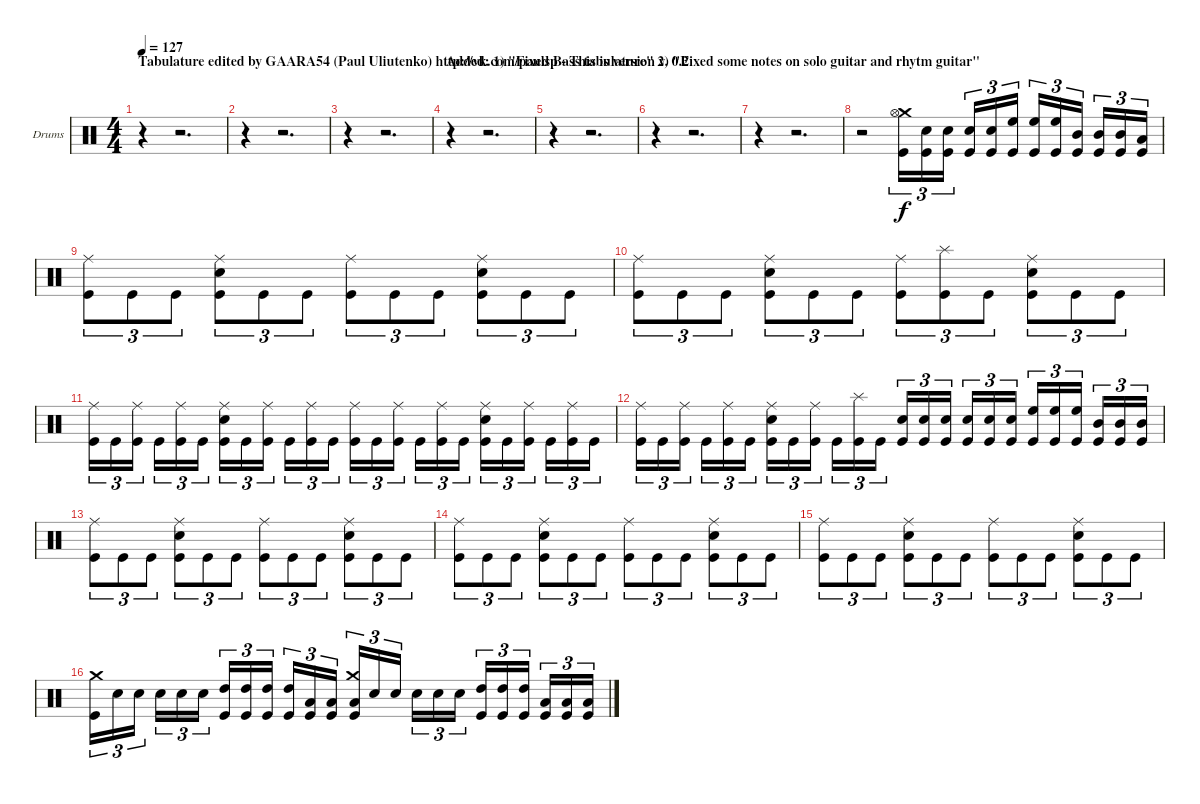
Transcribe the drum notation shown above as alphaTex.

\bracketExtendMode groupsimilarinstruments
\firstSystemTrackNameOrientation horizontal
\otherSystemsTrackNameOrientation horizontal
\track ("Drumkit" "Drums") {instrument percussion}
\staff {score}
\articulation defaults
\ts (4 4)
\section ("" "Tabulature edited by GAARA54 (Paul Uliutenko) http://vk.com/paulsp - This is version v. 0.2")
\tempo 127
\clef neutral
\ks c
r.4{dy f} r.2{d} |
r.4 r.2{d} |
r.4 r.2{d} |
\section ("" "Added: 1) \"Fixed Bass tabulature\" 2) \"Fixed some notes on solo guitar and rhytm guitar\"")
r.4 r.2{d} |
r.4 r.2{d} |
r.4 r.2{d} |
r.4 r.2{d} |
r.2 ("Kick (hit)" "Crash medium (hit)" "Hi-Hat (open)").16{tu (3 2)} ("Kick (hit)" "Snare (hit) 2").16{tu (3 2)} ("Kick (hit)" "Snare (hit) 2").16{tu (3 2)} ("Kick (hit)" "Snare (hit) 2").16{tu (3 2)} ("Kick (hit)" "Snare (hit) 2").16{tu (3 2)} ("Kick (hit)" "High Floor Tom (hit)").16{tu (3 2)} ("Kick (hit)" "High Floor Tom (hit)").16{tu (3 2)} ("Kick (hit)" "High Floor Tom (hit)").16{tu (3 2)} ("Kick (hit)" "Mid Tom (hit)").16{tu (3 2)} ("Kick (hit)" "Mid Tom (hit)").16{tu (3 2)} ("Kick (hit)" "Mid Tom (hit)").16{tu (3 2)} ("Kick (hit)" "Low Tom (hit)").16{tu (3 2)} |
("Ride (middle)" "Kick (hit)").8{tu (3 2)} "Kick (hit)".8{tu (3 2)} "Kick (hit)".8{tu (3 2)} ("Ride (middle)" "Snare (hit) 2" "Kick (hit)").8{tu (3 2)} "Kick (hit)".8{tu (3 2)} "Kick (hit)".8{tu (3 2)} ("Ride (middle)" "Kick (hit)").8{tu (3 2)} "Kick (hit)".8{tu (3 2)} "Kick (hit)".8{tu (3 2)} ("Ride (middle)" "Snare (hit) 2" "Kick (hit)").8{tu (3 2)} "Kick (hit)".8{tu (3 2)} "Kick (hit)".8{tu (3 2)} |
("Ride (middle)" "Kick (hit)").8{tu (3 2)} "Kick (hit)".8{tu (3 2)} "Kick (hit)".8{tu (3 2)} ("Ride (middle)" "Snare (hit) 2" "Kick (hit)").8{tu (3 2)} "Kick (hit)".8{tu (3 2)} "Kick (hit)".8{tu (3 2)} ("Ride (middle)" "Kick (hit)").8{tu (3 2)} ("Splash (hit)" "Kick (hit)").8{tu (3 2)} "Kick (hit)".8{tu (3 2)} ("Ride (middle)" "Snare (hit) 2" "Kick (hit)").8{tu (3 2)} "Kick (hit)".8{tu (3 2)} "Kick (hit)".8{tu (3 2)} |
("Ride (middle)" "Kick (hit)").16{tu (3 2)} "Kick (hit)".16{tu (3 2)} ("Ride (middle)" "Kick (hit)").16{tu (3 2)} "Kick (hit)".16{tu (3 2)} ("Ride (middle)" "Kick (hit)").16{tu (3 2)} "Kick (hit)".16{tu (3 2)} ("Ride (middle)" "Snare (hit) 2" "Kick (hit)").16{tu (3 2)} "Kick (hit)".16{tu (3 2)} ("Ride (middle)" "Kick (hit)").16{tu (3 2)} "Kick (hit)".16{tu (3 2)} ("Ride (middle)" "Kick (hit)").16{tu (3 2)} "Kick (hit)".16{tu (3 2)} ("Ride (middle)" "Kick (hit)").16{tu (3 2)} "Kick (hit)".16{tu (3 2)} ("Ride (middle)" "Kick (hit)").16{tu (3 2)} "Kick (hit)".16{tu (3 2)} ("Ride (middle)" "Kick (hit)").16{tu (3 2)} "Kick (hit)".16{tu (3 2)} ("Ride (middle)" "Snare (hit) 2" "Kick (hit)").16{tu (3 2)} "Kick (hit)".16{tu (3 2)} ("Ride (middle)" "Kick (hit)").16{tu (3 2)} "Kick (hit)".16{tu (3 2)} ("Ride (middle)" "Kick (hit)").16{tu (3 2)} "Kick (hit)".16{tu (3 2)} |
("Ride (middle)" "Kick (hit)").16{tu (3 2)} "Kick (hit)".16{tu (3 2)} ("Ride (middle)" "Kick (hit)").16{tu (3 2)} "Kick (hit)".16{tu (3 2)} ("Ride (middle)" "Kick (hit)").16{tu (3 2)} "Kick (hit)".16{tu (3 2)} ("Ride (middle)" "Snare (hit) 2" "Kick (hit)").16{tu (3 2)} "Kick (hit)".16{tu (3 2)} ("Ride (middle)" "Kick (hit)").16{tu (3 2)} "Kick (hit)".16{tu (3 2)} ("Splash (hit)" "Kick (hit)").16{tu (3 2)} "Kick (hit)".16{tu (3 2)} ("Snare (hit) 2" "Kick (hit)").16{tu (3 2)} ("Snare (hit) 2" "Kick (hit)").16{tu (3 2)} ("Snare (hit) 2" "Kick (hit)").16{tu (3 2)} ("Snare (hit) 2" "Kick (hit)").16{tu (3 2)} ("Snare (hit) 2" "Kick (hit)").16{tu (3 2)} ("Snare (hit) 2" "Kick (hit)").16{tu (3 2)} ("High Floor Tom (hit)" "Kick (hit)").16{tu (3 2)} ("High Floor Tom (hit)" "Kick (hit)").16{tu (3 2)} ("High Floor Tom (hit)" "Kick (hit)").16{tu (3 2)} ("Mid Tom (hit)" "Kick (hit)").16{tu (3 2)} ("Mid Tom (hit)" "Kick (hit)").16{tu (3 2)} ("Mid Tom (hit)" "Kick (hit)").16{tu (3 2)} |
("Ride (middle)" "Kick (hit)").8{tu (3 2)} "Kick (hit)".8{tu (3 2)} "Kick (hit)".8{tu (3 2)} ("Ride (middle)" "Snare (hit) 2" "Kick (hit)").8{tu (3 2)} "Kick (hit)".8{tu (3 2)} "Kick (hit)".8{tu (3 2)} ("Ride (middle)" "Kick (hit)").8{tu (3 2)} "Kick (hit)".8{tu (3 2)} "Kick (hit)".8{tu (3 2)} ("Ride (middle)" "Snare (hit) 2" "Kick (hit)").8{tu (3 2)} "Kick (hit)".8{tu (3 2)} "Kick (hit)".8{tu (3 2)} |
("Ride (middle)" "Kick (hit)").8{tu (3 2)} "Kick (hit)".8{tu (3 2)} "Kick (hit)".8{tu (3 2)} ("Ride (middle)" "Snare (hit) 2" "Kick (hit)").8{tu (3 2)} "Kick (hit)".8{tu (3 2)} "Kick (hit)".8{tu (3 2)} ("Ride (middle)" "Kick (hit)").8{tu (3 2)} "Kick (hit)".8{tu (3 2)} "Kick (hit)".8{tu (3 2)} ("Ride (middle)" "Snare (hit) 2" "Kick (hit)").8{tu (3 2)} "Kick (hit)".8{tu (3 2)} "Kick (hit)".8{tu (3 2)} |
("Ride (middle)" "Kick (hit)").8{tu (3 2)} "Kick (hit)".8{tu (3 2)} "Kick (hit)".8{tu (3 2)} ("Ride (middle)" "Snare (hit) 2" "Kick (hit)").8{tu (3 2)} "Kick (hit)".8{tu (3 2)} "Kick (hit)".8{tu (3 2)} ("Ride (middle)" "Kick (hit)").8{tu (3 2)} "Kick (hit)".8{tu (3 2)} "Kick (hit)".8{tu (3 2)} ("Ride (middle)" "Snare (hit) 2" "Kick (hit)").8{tu (3 2)} "Kick (hit)".8{tu (3 2)} "Kick (hit)".8{tu (3 2)} |
("Crash medium (hit)" "Kick (hit)").16{tu (3 2)} "Snare (hit) 2".16{tu (3 2)} "Snare (hit) 2".16{tu (3 2)} "Snare (hit) 2".16{tu (3 2)} "Snare (hit) 2".16{tu (3 2)} "Snare (hit) 2".16{tu (3 2)} ("High Tom (hit)" "Kick (hit)").16{tu (3 2)} ("High Tom (hit)" "Kick (hit)").16{tu (3 2)} ("High Tom (hit)" "Kick (hit)").16{tu (3 2)} ("High Tom (hit)" "Kick (hit)").16{tu (3 2)} ("Low Tom (hit)" "Kick (hit)").16{tu (3 2)} ("Low Tom (hit)" "Kick (hit)").16{tu (3 2)} ("Crash medium (hit)" "Low Tom (hit)" "Kick (hit)").16{tu (3 2)} "Snare (hit) 2".16{tu (3 2)} "Snare (hit) 2".16{tu (3 2)} "Snare (hit) 2".16{tu (3 2)} "Snare (hit) 2".16{tu (3 2)} "Snare (hit) 2".16{tu (3 2)} ("High Tom (hit)" "Kick (hit)").16{tu (3 2)} ("High Tom (hit)" "Kick (hit)").16{tu (3 2)} ("High Tom (hit)" "Kick (hit)").16{tu (3 2)} ("Low Tom (hit)" "Kick (hit)").16{tu (3 2)} ("Low Tom (hit)" "Kick (hit)").16{tu (3 2)} ("Low Tom (hit)" "Kick (hit)").16{tu (3 2)}
